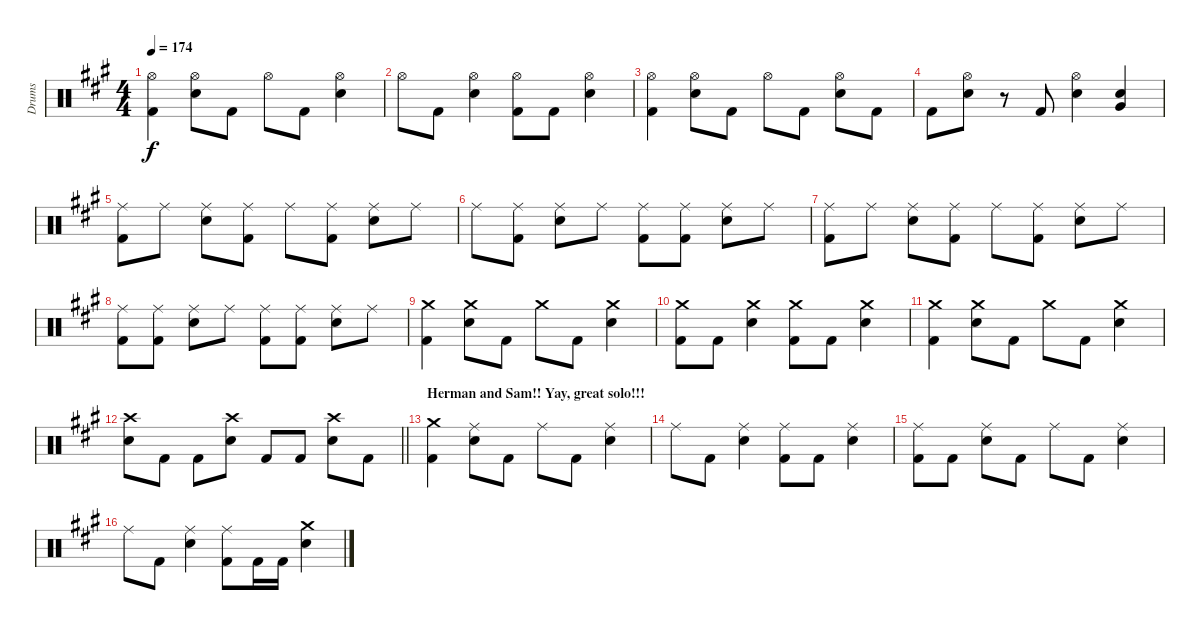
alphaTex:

\track ("Drums" "Drums") {instrument percussion}
\staff {score}
\articulation defaults
\ts (4 4)
\tempo 174
\clef neutral
\ks f#minor
("Hi-Hat (open)" "Kick (hit) 2").4{dy f} ("Hi-Hat (open)" "Snare (hit) 2").8 "Kick (hit) 2".8 "Hi-Hat (open)".8 "Kick (hit) 2".8 ("Hi-Hat (open)" "Snare (hit) 2").4 |
"Hi-Hat (open)".8 "Kick (hit) 2".8 ("Hi-Hat (open)" "Snare (hit) 2").4 ("Hi-Hat (open)" "Kick (hit) 2").8 "Kick (hit) 2".8 ("Hi-Hat (open)" "Snare (hit) 2").4 |
("Hi-Hat (open)" "Kick (hit) 2").4 ("Hi-Hat (open)" "Snare (hit) 2").8 "Kick (hit) 2".8 "Hi-Hat (open)".8 "Kick (hit) 2".8 ("Hi-Hat (open)" "Snare (hit) 2").8 "Kick (hit) 2".8 |
"Kick (hit) 2".8 ("Hi-Hat (open)" "Snare (hit) 2").8 r.8 "Kick (hit) 2".8 ("Hi-Hat (open)" "Snare (hit) 2").4 ("Snare (hit) 2" "Very Low Tom (hit)").4 |
("Ride (middle)" "Kick (hit) 2").8 "Ride (middle)".8 ("Ride (middle)" "Snare (hit) 2").8 ("Ride (middle)" "Kick (hit) 2").8 "Ride (middle)".8 ("Ride (middle)" "Kick (hit) 2").8 ("Ride (middle)" "Snare (hit) 2").8 "Ride (middle)".8 |
"Ride (middle)".8 ("Ride (middle)" "Kick (hit) 2").8 ("Ride (middle)" "Snare (hit) 2").8 "Ride (middle)".8 ("Ride (middle)" "Kick (hit) 2").8 ("Ride (middle)" "Kick (hit) 2").8 ("Ride (middle)" "Snare (hit) 2").8 "Ride (middle)".8 |
("Ride (middle)" "Kick (hit) 2").8 "Ride (middle)".8 ("Ride (middle)" "Snare (hit) 2").8 ("Ride (middle)" "Kick (hit) 2").8 "Ride (middle)".8 ("Ride (middle)" "Kick (hit) 2").8 ("Ride (middle)" "Snare (hit) 2").8 "Ride (middle)".8 |
("Ride (middle)" "Kick (hit) 2").8 ("Ride (middle)" "Kick (hit) 2").8 ("Ride (middle)" "Snare (hit) 2").8 "Ride (middle)".8 ("Ride (middle)" "Kick (hit) 2").8 ("Ride (middle)" "Kick (hit) 2").8 ("Ride (middle)" "Snare (hit) 2").8 "Ride (middle)".8 |
("Crash medium (hit)" "Kick (hit) 2").4 ("Crash medium (hit)" "Snare (hit) 2").8 "Kick (hit) 2".8 "Crash medium (hit)".8 "Kick (hit) 2".8 ("Crash medium (hit)" "Snare (hit) 2").4 |
("Crash medium (hit)" "Kick (hit) 2").8 "Kick (hit) 2".8 ("Crash medium (hit)" "Snare (hit) 2").4 ("Crash medium (hit)" "Kick (hit) 2").8 "Kick (hit) 2".8 ("Crash medium (hit)" "Snare (hit) 2").4 |
("Crash medium (hit)" "Kick (hit) 2").4 ("Crash medium (hit)" "Snare (hit) 2").8 "Kick (hit) 2".8 "Crash medium (hit)".8 "Kick (hit) 2".8 ("Crash medium (hit)" "Snare (hit) 2").4 |
\barLineRight lightlight
("Crash high (hit)" "Snare (hit) 2").8 "Kick (hit) 2".8 "Kick (hit) 2".8 ("Crash high (hit)" "Snare (hit) 2").8 "Kick (hit) 2".8 "Kick (hit) 2".8 ("Crash high (hit)" "Snare (hit) 2").8 "Kick (hit) 2".8 |
\section ("" "Herman and Sam!! Yay, great solo!!!")
("Crash medium (hit)" "Kick (hit) 2").4 ("Ride (middle)" "Snare (hit) 2").8 "Kick (hit) 2".8 "Ride (middle)".8 "Kick (hit) 2".8 ("Ride (middle)" "Snare (hit) 2").4 |
"Ride (middle)".8 "Kick (hit) 2".8 ("Ride (middle)" "Snare (hit) 2").4 ("Ride (middle)" "Kick (hit) 2").8 "Kick (hit) 2".8 ("Ride (middle)" "Snare (hit) 2").4 |
("Ride (middle)" "Kick (hit) 2").8 "Kick (hit) 2".8 ("Ride (middle)" "Snare (hit) 2").8 "Kick (hit) 2".8 "Ride (middle)".8 "Kick (hit) 2".8 ("Ride (middle)" "Snare (hit) 2").4 |
"Ride (middle)".8 "Kick (hit) 2".8 ("Ride (middle)" "Snare (hit) 2").4 ("Ride (middle)" "Kick (hit) 2").8 "Kick (hit) 2".16 "Kick (hit) 2".16 ("Crash medium (hit)" "Snare (hit) 2").4
